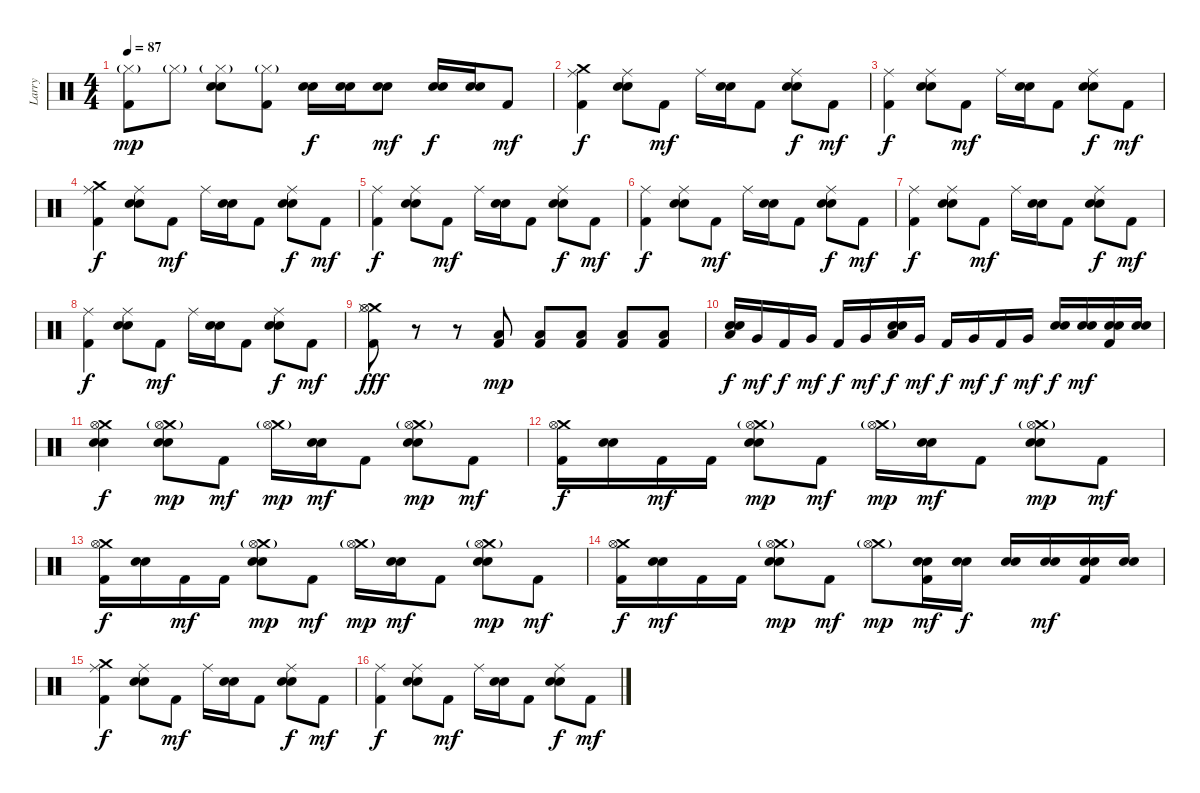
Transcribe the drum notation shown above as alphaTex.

\track ("Larry" "Larry") {instrument percussion}
\staff {score}
\articulation defaults
\ts (4 4)
\tempo 87
\clef neutral
\ks c
("Kick (hit) 2" "Hi-Hat (closed)"{g}).8{dy mp} "Hi-Hat (closed)"{g}.8 ("Snare (hit) 2" "Electric Snare (hit)" "Hi-Hat (closed)"{g}).8 ("Kick (hit) 2" "Hi-Hat (closed)"{g}).8 ("Snare (hit) 2" "Electric Snare (hit)").16{dy f} ("Snare (hit) 2" "Electric Snare (hit)").16 ("Snare (hit) 2" "Electric Snare (hit)").8{dy mf} ("Snare (hit) 2" "Electric Snare (hit)").16{dy f} ("Snare (hit) 2" "Electric Snare (hit)").16 "Kick (hit) 2".8{dy mf} |
("Crash medium (hit)" "Kick (hit) 2" "Ride (middle)").4{dy f} ("Snare (hit) 2" "Electric Snare (hit)" "Ride (middle)").8 "Kick (hit) 2".8{dy mf} "Ride (middle)".16 ("Snare (hit) 2" "Electric Snare (hit)").16 "Kick (hit) 2".8 ("Snare (hit) 2" "Electric Snare (hit)" "Ride (middle)").8{dy f} "Kick (hit) 2".8{dy mf} |
("Kick (hit) 2" "Ride (middle)").4{dy f} ("Snare (hit) 2" "Electric Snare (hit)" "Ride (middle)").8 "Kick (hit) 2".8{dy mf} "Ride (middle)".16 ("Snare (hit) 2" "Electric Snare (hit)").16 "Kick (hit) 2".8 ("Snare (hit) 2" "Electric Snare (hit)" "Ride (middle)").8{dy f} "Kick (hit) 2".8{dy mf} |
("Crash medium (hit)" "Kick (hit) 2" "Ride (middle)").4{dy f} ("Snare (hit) 2" "Electric Snare (hit)" "Ride (middle)").8 "Kick (hit) 2".8{dy mf} "Ride (middle)".16 ("Snare (hit) 2" "Electric Snare (hit)").16 "Kick (hit) 2".8 ("Snare (hit) 2" "Electric Snare (hit)" "Ride (middle)").8{dy f} "Kick (hit) 2".8{dy mf} |
("Kick (hit) 2" "Ride (middle)").4{dy f} ("Snare (hit) 2" "Electric Snare (hit)" "Ride (middle)").8 "Kick (hit) 2".8{dy mf} "Ride (middle)".16 ("Snare (hit) 2" "Electric Snare (hit)").16 "Kick (hit) 2".8 ("Snare (hit) 2" "Electric Snare (hit)" "Ride (middle)").8{dy f} "Kick (hit) 2".8{dy mf} |
("Kick (hit) 2" "Ride (middle)").4{dy f} ("Snare (hit) 2" "Electric Snare (hit)" "Ride (middle)").8 "Kick (hit) 2".8{dy mf} "Ride (middle)".16 ("Snare (hit) 2" "Electric Snare (hit)").16 "Kick (hit) 2".8 ("Snare (hit) 2" "Electric Snare (hit)" "Ride (middle)").8{dy f} "Kick (hit) 2".8{dy mf} |
("Kick (hit) 2" "Ride (middle)").4{dy f} ("Snare (hit) 2" "Electric Snare (hit)" "Ride (middle)").8 "Kick (hit) 2".8{dy mf} "Ride (middle)".16 ("Snare (hit) 2" "Electric Snare (hit)").16 "Kick (hit) 2".8 ("Snare (hit) 2" "Electric Snare (hit)" "Ride (middle)").8{dy f} "Kick (hit) 2".8{dy mf} |
("Kick (hit) 2" "Ride (middle)").4{dy f} ("Snare (hit) 2" "Electric Snare (hit)" "Ride (middle)").8 "Kick (hit) 2".8{dy mf} "Ride (middle)".16 ("Snare (hit) 2" "Electric Snare (hit)").16 "Kick (hit) 2".8 ("Snare (hit) 2" "Electric Snare (hit)" "Ride (middle)").8{dy f} "Kick (hit) 2".8{dy mf} |
("Crash medium (hit)" "Hi-Hat (open)" "Kick (hit) 2" "Hi-Hat (closed)").8{dy fff} r.8 r.8 ("Low Floor Tom (hit)" "Kick (hit) 2").8{dy mp} ("Low Floor Tom (hit)" "Kick (hit) 2").8 ("Low Floor Tom (hit)" "Kick (hit) 2").8 ("Low Floor Tom (hit)" "Kick (hit) 2").8 ("Low Floor Tom (hit)" "Kick (hit) 2").8 |
("Snare (hit) 2" "Electric Snare (hit)" "Low Tom (hit)").16{dy f} "Very Low Tom (hit)".16{dy mf} "Kick (hit) 2".16{dy f} "Very Low Tom (hit)".16{dy mf} "Kick (hit) 2".16{dy f} "Very Low Tom (hit)".16{dy mf} ("Snare (hit) 2" "Electric Snare (hit)" "Low Tom (hit)").16{dy f} "Very Low Tom (hit)".16{dy mf} "Kick (hit) 2".16{dy f} "Very Low Tom (hit)".16{dy mf} "Kick (hit) 2".16{dy f} "Very Low Tom (hit)".16{dy mf} ("Snare (hit) 2" "Electric Snare (hit)").16{dy f} ("Snare (hit) 2" "Electric Snare (hit)").16{dy mf} ("Snare (hit) 2" "Electric Snare (hit)" "Kick (hit) 2").16 ("Snare (hit) 2" "Electric Snare (hit)").16 |
("Crash medium (hit)" "Snare (hit) 2" "Electric Snare (hit)" "Hi-Hat (open)").4{dy f} ("Crash medium (hit)"{g} "Snare (hit) 2" "Electric Snare (hit)" "Hi-Hat (open)"{g}).8{dy mp} "Kick (hit) 2".8{dy mf} ("Crash medium (hit)"{g} "Hi-Hat (open)"{g}).16{dy mp} ("Snare (hit) 2" "Electric Snare (hit)").16{dy mf} "Kick (hit) 2".8 ("Crash medium (hit)"{g} "Snare (hit) 2" "Electric Snare (hit)" "Hi-Hat (open)"{g}).8{dy mp} "Kick (hit) 2".8{dy mf} |
("Crash medium (hit)" "Kick (hit) 2" "Hi-Hat (open)").16{dy f} ("Snare (hit) 2" "Electric Snare (hit)").16 "Kick (hit) 2".16{dy mf} "Kick (hit) 2".16 ("Crash medium (hit)"{g} "Snare (hit) 2" "Electric Snare (hit)" "Hi-Hat (open)"{g}).8{dy mp} "Kick (hit) 2".8{dy mf} ("Crash medium (hit)"{g} "Hi-Hat (open)"{g}).16{dy mp} ("Snare (hit) 2" "Electric Snare (hit)").16{dy mf} "Kick (hit) 2".8 ("Crash medium (hit)"{g} "Snare (hit) 2" "Electric Snare (hit)" "Hi-Hat (open)"{g}).8{dy mp} "Kick (hit) 2".8{dy mf} |
("Crash medium (hit)" "Kick (hit) 2" "Hi-Hat (open)").16{dy f} ("Snare (hit) 2" "Electric Snare (hit)").16 "Kick (hit) 2".16{dy mf} "Kick (hit) 2".16 ("Crash medium (hit)"{g} "Snare (hit) 2" "Electric Snare (hit)" "Hi-Hat (open)"{g}).8{dy mp} "Kick (hit) 2".8{dy mf} ("Crash medium (hit)"{g} "Hi-Hat (open)"{g}).16{dy mp} ("Snare (hit) 2" "Electric Snare (hit)").16{dy mf} "Kick (hit) 2".8 ("Crash medium (hit)"{g} "Snare (hit) 2" "Electric Snare (hit)" "Hi-Hat (open)"{g}).8{dy mp} "Kick (hit) 2".8{dy mf} |
("Crash medium (hit)" "Kick (hit) 2" "Hi-Hat (open)").16{dy f} ("Snare (hit) 2" "Electric Snare (hit)").16{dy mf} "Kick (hit) 2".16 "Kick (hit) 2".16 ("Crash medium (hit)"{g} "Snare (hit) 2" "Electric Snare (hit)" "Hi-Hat (open)"{g}).8{dy mp} "Kick (hit) 2".8{dy mf} ("Crash medium (hit)"{g} "Hi-Hat (open)"{g}).8{dy mp} ("Snare (hit) 2" "Electric Snare (hit)" "Kick (hit) 2").16{dy mf} ("Snare (hit) 2" "Electric Snare (hit)").16{dy f} ("Snare (hit) 2" "Electric Snare (hit)").16 ("Snare (hit) 2" "Electric Snare (hit)").16{dy mf} ("Snare (hit) 2" "Electric Snare (hit)" "Kick (hit) 2").16 ("Snare (hit) 2" "Electric Snare (hit)").16 |
("Crash medium (hit)" "Kick (hit) 2" "Ride (middle)").4{dy f} ("Snare (hit) 2" "Electric Snare (hit)" "Ride (middle)").8 "Kick (hit) 2".8{dy mf} "Ride (middle)".16 ("Snare (hit) 2" "Electric Snare (hit)").16 "Kick (hit) 2".8 ("Snare (hit) 2" "Electric Snare (hit)" "Ride (middle)").8{dy f} "Kick (hit) 2".8{dy mf} |
("Kick (hit) 2" "Ride (middle)").4{dy f} ("Snare (hit) 2" "Electric Snare (hit)" "Ride (middle)").8 "Kick (hit) 2".8{dy mf} "Ride (middle)".16 ("Snare (hit) 2" "Electric Snare (hit)").16 "Kick (hit) 2".8 ("Snare (hit) 2" "Electric Snare (hit)" "Ride (middle)").8{dy f} "Kick (hit) 2".8{dy mf}
